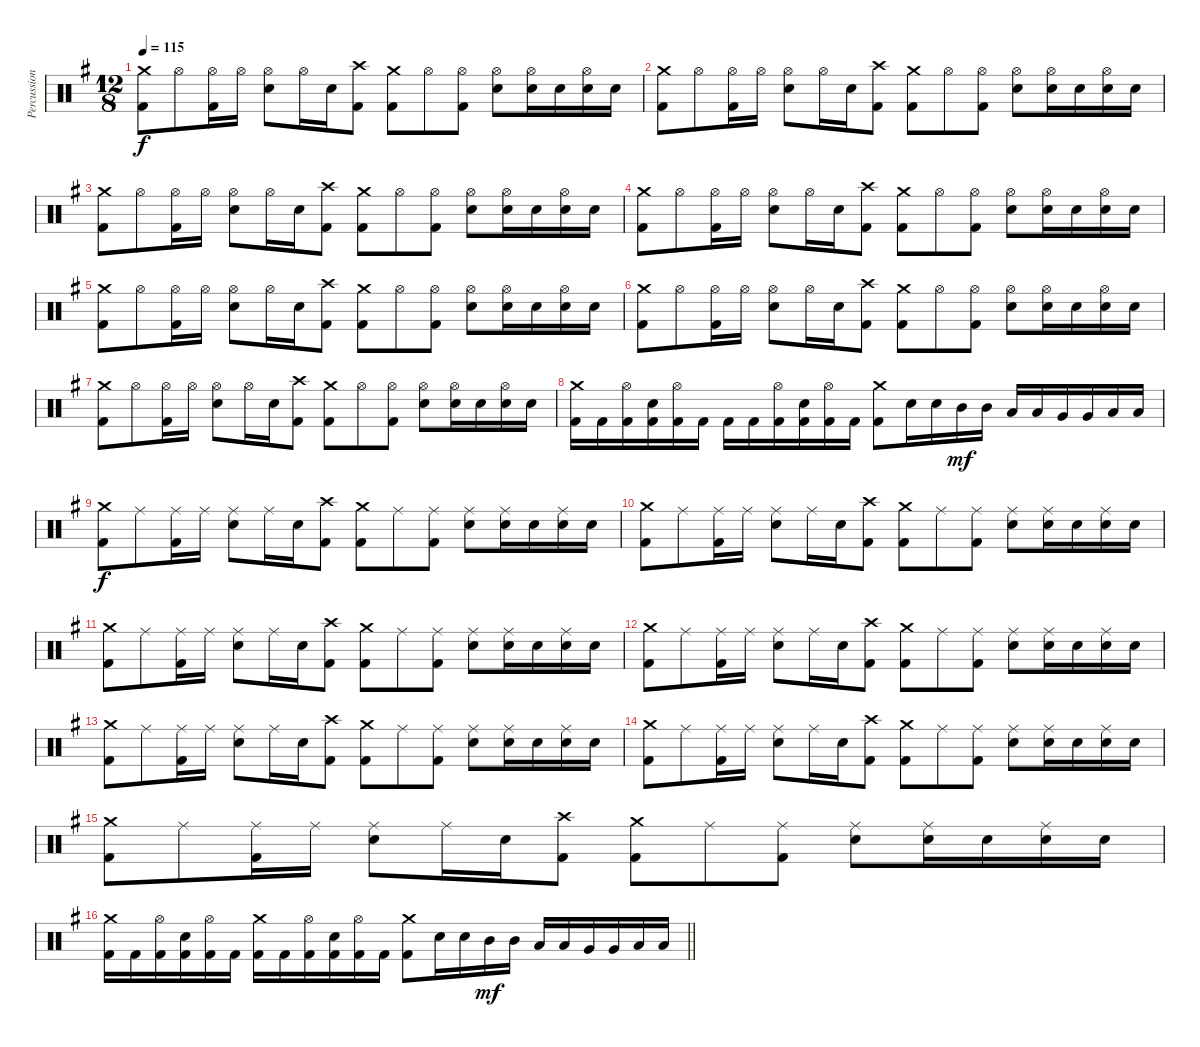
\track ("Percussion" "Percussion") {instrument percussion}
\staff {score}
\articulation defaults
\ts (12 8)
\tempo 115
\clef neutral
\ks g
("Crash medium (hit)" "Kick (hit) 2").8{dy f} "Hi-Hat (open)".8 ("Hi-Hat (open)" "Kick (hit) 2").16 "Hi-Hat (open)".16 ("Hi-Hat (open)" "Snare (hit) 2").8 "Hi-Hat (open)".16 "Snare (hit) 2".16 ("Crash high (hit)" "Kick (hit) 2").8 ("Crash medium (hit)" "Kick (hit) 2").8 "Hi-Hat (open)".8 ("Hi-Hat (open)" "Kick (hit) 2").8 ("Hi-Hat (open)" "Snare (hit) 2").8 ("Hi-Hat (open)" "Snare (hit) 2").16 "Snare (hit) 2".16 ("Hi-Hat (open)" "Snare (hit) 2").16 "Snare (hit) 2".16 |
("Crash medium (hit)" "Kick (hit) 2").8 "Hi-Hat (open)".8 ("Hi-Hat (open)" "Kick (hit) 2").16 "Hi-Hat (open)".16 ("Hi-Hat (open)" "Snare (hit) 2").8 "Hi-Hat (open)".16 "Snare (hit) 2".16 ("Crash high (hit)" "Kick (hit) 2").8 ("Crash medium (hit)" "Kick (hit) 2").8 "Hi-Hat (open)".8 ("Hi-Hat (open)" "Kick (hit) 2").8 ("Hi-Hat (open)" "Snare (hit) 2").8 ("Hi-Hat (open)" "Snare (hit) 2").16 "Snare (hit) 2".16 ("Hi-Hat (open)" "Snare (hit) 2").16 "Snare (hit) 2".16 |
("Crash medium (hit)" "Kick (hit) 2").8 "Hi-Hat (open)".8 ("Hi-Hat (open)" "Kick (hit) 2").16 "Hi-Hat (open)".16 ("Hi-Hat (open)" "Snare (hit) 2").8 "Hi-Hat (open)".16 "Snare (hit) 2".16 ("Crash high (hit)" "Kick (hit) 2").8 ("Crash medium (hit)" "Kick (hit) 2").8 "Hi-Hat (open)".8 ("Hi-Hat (open)" "Kick (hit) 2").8 ("Hi-Hat (open)" "Snare (hit) 2").8 ("Hi-Hat (open)" "Snare (hit) 2").16 "Snare (hit) 2".16 ("Hi-Hat (open)" "Snare (hit) 2").16 "Snare (hit) 2".16 |
("Crash medium (hit)" "Kick (hit) 2").8 "Hi-Hat (open)".8 ("Hi-Hat (open)" "Kick (hit) 2").16 "Hi-Hat (open)".16 ("Hi-Hat (open)" "Snare (hit) 2").8 "Hi-Hat (open)".16 "Snare (hit) 2".16 ("Crash high (hit)" "Kick (hit) 2").8 ("Crash medium (hit)" "Kick (hit) 2").8 "Hi-Hat (open)".8 ("Hi-Hat (open)" "Kick (hit) 2").8 ("Hi-Hat (open)" "Snare (hit) 2").8 ("Hi-Hat (open)" "Snare (hit) 2").16 "Snare (hit) 2".16 ("Hi-Hat (open)" "Snare (hit) 2").16 "Snare (hit) 2".16 |
("Crash medium (hit)" "Kick (hit) 2").8 "Hi-Hat (open)".8 ("Hi-Hat (open)" "Kick (hit) 2").16 "Hi-Hat (open)".16 ("Hi-Hat (open)" "Snare (hit) 2").8 "Hi-Hat (open)".16 "Snare (hit) 2".16 ("Crash high (hit)" "Kick (hit) 2").8 ("Crash medium (hit)" "Kick (hit) 2").8 "Hi-Hat (open)".8 ("Hi-Hat (open)" "Kick (hit) 2").8 ("Hi-Hat (open)" "Snare (hit) 2").8 ("Hi-Hat (open)" "Snare (hit) 2").16 "Snare (hit) 2".16 ("Hi-Hat (open)" "Snare (hit) 2").16 "Snare (hit) 2".16 |
("Crash medium (hit)" "Kick (hit) 2").8 "Hi-Hat (open)".8 ("Hi-Hat (open)" "Kick (hit) 2").16 "Hi-Hat (open)".16 ("Hi-Hat (open)" "Snare (hit) 2").8 "Hi-Hat (open)".16 "Snare (hit) 2".16 ("Crash high (hit)" "Kick (hit) 2").8 ("Crash medium (hit)" "Kick (hit) 2").8 "Hi-Hat (open)".8 ("Hi-Hat (open)" "Kick (hit) 2").8 ("Hi-Hat (open)" "Snare (hit) 2").8 ("Hi-Hat (open)" "Snare (hit) 2").16 "Snare (hit) 2".16 ("Hi-Hat (open)" "Snare (hit) 2").16 "Snare (hit) 2".16 |
("Crash medium (hit)" "Kick (hit) 2").8 "Hi-Hat (open)".8 ("Hi-Hat (open)" "Kick (hit) 2").16 "Hi-Hat (open)".16 ("Hi-Hat (open)" "Snare (hit) 2").8 "Hi-Hat (open)".16 "Snare (hit) 2".16 ("Crash high (hit)" "Kick (hit) 2").8 ("Crash medium (hit)" "Kick (hit) 2").8 "Hi-Hat (open)".8 ("Hi-Hat (open)" "Kick (hit) 2").8 ("Hi-Hat (open)" "Snare (hit) 2").8 ("Hi-Hat (open)" "Snare (hit) 2").16 "Snare (hit) 2".16 ("Hi-Hat (open)" "Snare (hit) 2").16 "Snare (hit) 2".16 |
("Crash medium (hit)" "Kick (hit) 2").16 "Kick (hit) 2".16 ("Hi-Hat (open)" "Kick (hit) 2").16 ("Snare (hit) 2" "Kick (hit) 2").16 ("Hi-Hat (open)" "Kick (hit) 2").16 "Kick (hit) 2".16 "Kick (hit) 2".16 "Kick (hit) 2".16 ("Hi-Hat (open)" "Kick (hit) 2").16 ("Snare (hit) 2" "Kick (hit) 2").16 ("Hi-Hat (open)" "Kick (hit) 2").16 "Kick (hit) 2".16 ("Crash medium (hit)" "Kick (hit) 2").8 "Snare (hit) 2".16 "Snare (hit) 2".16 "Mid Tom (hit)".16{dy mf} "Mid Tom (hit)".16 "Low Tom (hit)".16 "Low Tom (hit)".16 "Very Low Tom (hit)".16 "Very Low Tom (hit)".16 "Low Floor Tom (hit)".16 "Low Floor Tom (hit)".16 |
("Crash medium (hit)" "Kick (hit) 2").8{dy f} "Ride (middle)".8 ("Ride (middle)" "Kick (hit) 2").16 "Ride (middle)".16 ("Ride (middle)" "Electric Snare (hit)").8 "Ride (middle)".16 "Electric Snare (hit)".16 ("Crash high (hit)" "Kick (hit) 2").8 ("Crash medium (hit)" "Kick (hit) 2").8 "Ride (middle)".8 ("Ride (middle)" "Kick (hit) 2").8 ("Ride (middle)" "Electric Snare (hit)").8 ("Ride (middle)" "Electric Snare (hit)").16 "Electric Snare (hit)".16 ("Ride (middle)" "Electric Snare (hit)").16 "Electric Snare (hit)".16 |
("Crash medium (hit)" "Kick (hit) 2").8 "Ride (middle)".8 ("Ride (middle)" "Kick (hit) 2").16 "Ride (middle)".16 ("Ride (middle)" "Electric Snare (hit)").8 "Ride (middle)".16 "Electric Snare (hit)".16 ("Crash high (hit)" "Kick (hit) 2").8 ("Crash medium (hit)" "Kick (hit) 2").8 "Ride (middle)".8 ("Ride (middle)" "Kick (hit) 2").8 ("Ride (middle)" "Electric Snare (hit)").8 ("Ride (middle)" "Electric Snare (hit)").16 "Electric Snare (hit)".16 ("Ride (middle)" "Electric Snare (hit)").16 "Electric Snare (hit)".16 |
("Crash medium (hit)" "Kick (hit) 2").8 "Ride (middle)".8 ("Ride (middle)" "Kick (hit) 2").16 "Ride (middle)".16 ("Ride (middle)" "Electric Snare (hit)").8 "Ride (middle)".16 "Electric Snare (hit)".16 ("Crash high (hit)" "Kick (hit) 2").8 ("Crash medium (hit)" "Kick (hit) 2").8 "Ride (middle)".8 ("Ride (middle)" "Kick (hit) 2").8 ("Ride (middle)" "Electric Snare (hit)").8 ("Ride (middle)" "Electric Snare (hit)").16 "Electric Snare (hit)".16 ("Ride (middle)" "Electric Snare (hit)").16 "Electric Snare (hit)".16 |
("Crash medium (hit)" "Kick (hit) 2").8 "Ride (middle)".8 ("Ride (middle)" "Kick (hit) 2").16 "Ride (middle)".16 ("Ride (middle)" "Electric Snare (hit)").8 "Ride (middle)".16 "Electric Snare (hit)".16 ("Crash high (hit)" "Kick (hit) 2").8 ("Crash medium (hit)" "Kick (hit) 2").8 "Ride (middle)".8 ("Ride (middle)" "Kick (hit) 2").8 ("Ride (middle)" "Electric Snare (hit)").8 ("Ride (middle)" "Electric Snare (hit)").16 "Electric Snare (hit)".16 ("Ride (middle)" "Electric Snare (hit)").16 "Electric Snare (hit)".16 |
("Crash medium (hit)" "Kick (hit) 2").8 "Ride (middle)".8 ("Ride (middle)" "Kick (hit) 2").16 "Ride (middle)".16 ("Ride (middle)" "Electric Snare (hit)").8 "Ride (middle)".16 "Electric Snare (hit)".16 ("Crash high (hit)" "Kick (hit) 2").8 ("Crash medium (hit)" "Kick (hit) 2").8 "Ride (middle)".8 ("Ride (middle)" "Kick (hit) 2").8 ("Ride (middle)" "Electric Snare (hit)").8 ("Ride (middle)" "Electric Snare (hit)").16 "Electric Snare (hit)".16 ("Ride (middle)" "Electric Snare (hit)").16 "Electric Snare (hit)".16 |
("Crash medium (hit)" "Kick (hit) 2").8 "Ride (middle)".8 ("Ride (middle)" "Kick (hit) 2").16 "Ride (middle)".16 ("Ride (middle)" "Electric Snare (hit)").8 "Ride (middle)".16 "Electric Snare (hit)".16 ("Crash high (hit)" "Kick (hit) 2").8 ("Crash medium (hit)" "Kick (hit) 2").8 "Ride (middle)".8 ("Ride (middle)" "Kick (hit) 2").8 ("Ride (middle)" "Electric Snare (hit)").8 ("Ride (middle)" "Electric Snare (hit)").16 "Electric Snare (hit)".16 ("Ride (middle)" "Electric Snare (hit)").16 "Electric Snare (hit)".16 |
("Crash medium (hit)" "Kick (hit) 2").8 "Ride (middle)".8 ("Ride (middle)" "Kick (hit) 2").16 "Ride (middle)".16 ("Ride (middle)" "Electric Snare (hit)").8 "Ride (middle)".16 "Electric Snare (hit)".16 ("Crash high (hit)" "Kick (hit) 2").8 ("Crash medium (hit)" "Kick (hit) 2").8 "Ride (middle)".8 ("Ride (middle)" "Kick (hit) 2").8 ("Ride (middle)" "Electric Snare (hit)").8 ("Ride (middle)" "Electric Snare (hit)").16 "Electric Snare (hit)".16 ("Ride (middle)" "Electric Snare (hit)").16 "Electric Snare (hit)".16 |
\barLineRight lightlight
("Crash medium (hit)" "Kick (hit) 2").16 "Kick (hit) 2".16 ("Hi-Hat (open)" "Kick (hit) 2").16 ("Snare (hit) 2" "Kick (hit) 2").16 ("Hi-Hat (open)" "Kick (hit) 2").16 "Kick (hit) 2".16 ("Crash medium (hit)" "Kick (hit) 2").16 "Kick (hit) 2".16 ("Hi-Hat (open)" "Kick (hit) 2").16 ("Snare (hit) 2" "Kick (hit) 2").16 ("Hi-Hat (open)" "Kick (hit) 2").16 "Kick (hit) 2".16 ("Crash medium (hit)" "Kick (hit) 2").8 "Snare (hit) 2".16 "Snare (hit) 2".16 "Mid Tom (hit)".16{dy mf} "Mid Tom (hit)".16 "Low Tom (hit)".16 "Low Tom (hit)".16 "Very Low Tom (hit)".16 "Very Low Tom (hit)".16 "Low Floor Tom (hit)".16 "Low Floor Tom (hit)".16
